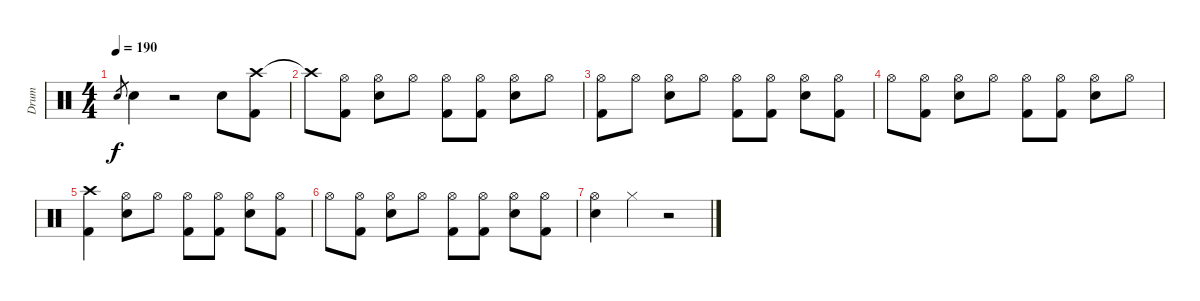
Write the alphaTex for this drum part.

\track ("Drum" "Drum") {instrument percussion}
\staff {score}
\articulation defaults
\ts (4 4)
\tempo 190
\clef neutral
\ks c "Electric Snare (hit)".8{gr dy f} "Electric Snare (hit)".4
r.2 "Electric Snare (hit)".8 ("Crash high (hit)" "Kick (hit) 2").8 |
"Crash high (hit)"{t}.8 ("Hi-Hat (open)" "Kick (hit) 2").8 ("Hi-Hat (open)" "Electric Snare (hit)").8 "Hi-Hat (open)".8 ("Hi-Hat (open)" "Kick (hit) 2").8 ("Hi-Hat (open)" "Kick (hit) 2").8 ("Hi-Hat (open)" "Electric Snare (hit)").8 "Hi-Hat (open)".8 |
("Hi-Hat (open)" "Kick (hit) 2").8 "Hi-Hat (open)".8 ("Hi-Hat (open)" "Electric Snare (hit)").8 "Hi-Hat (open)".8 ("Hi-Hat (open)" "Kick (hit) 2").8 ("Hi-Hat (open)" "Kick (hit) 2").8 ("Hi-Hat (open)" "Electric Snare (hit)").8 ("Hi-Hat (open)" "Kick (hit) 2").8 |
"Hi-Hat (open)".8 ("Hi-Hat (open)" "Kick (hit) 2").8 ("Hi-Hat (open)" "Electric Snare (hit)").8 "Hi-Hat (open)".8 ("Hi-Hat (open)" "Kick (hit) 2").8 ("Hi-Hat (open)" "Kick (hit) 2").8 ("Hi-Hat (open)" "Electric Snare (hit)").8 "Hi-Hat (open)".8 |
("Crash high (hit)" "Kick (hit) 2").4 ("Hi-Hat (open)" "Electric Snare (hit)").8 "Hi-Hat (open)".8 ("Hi-Hat (open)" "Kick (hit) 2").8 ("Hi-Hat (open)" "Kick (hit) 2").8 ("Hi-Hat (open)" "Electric Snare (hit)").8 ("Hi-Hat (open)" "Kick (hit) 2").8 |
"Hi-Hat (open)".8 ("Hi-Hat (open)" "Kick (hit) 2").8 ("Hi-Hat (open)" "Electric Snare (hit)").8 "Hi-Hat (open)".8 ("Hi-Hat (open)" "Kick (hit) 2").8 ("Hi-Hat (open)" "Kick (hit) 2").8 ("Hi-Hat (open)" "Electric Snare (hit)").8 ("Hi-Hat (open)" "Kick (hit) 2").8 |
("Hi-Hat (open)" "Electric Snare (hit)").4 "Hi-Hat (closed)".4 r.2
